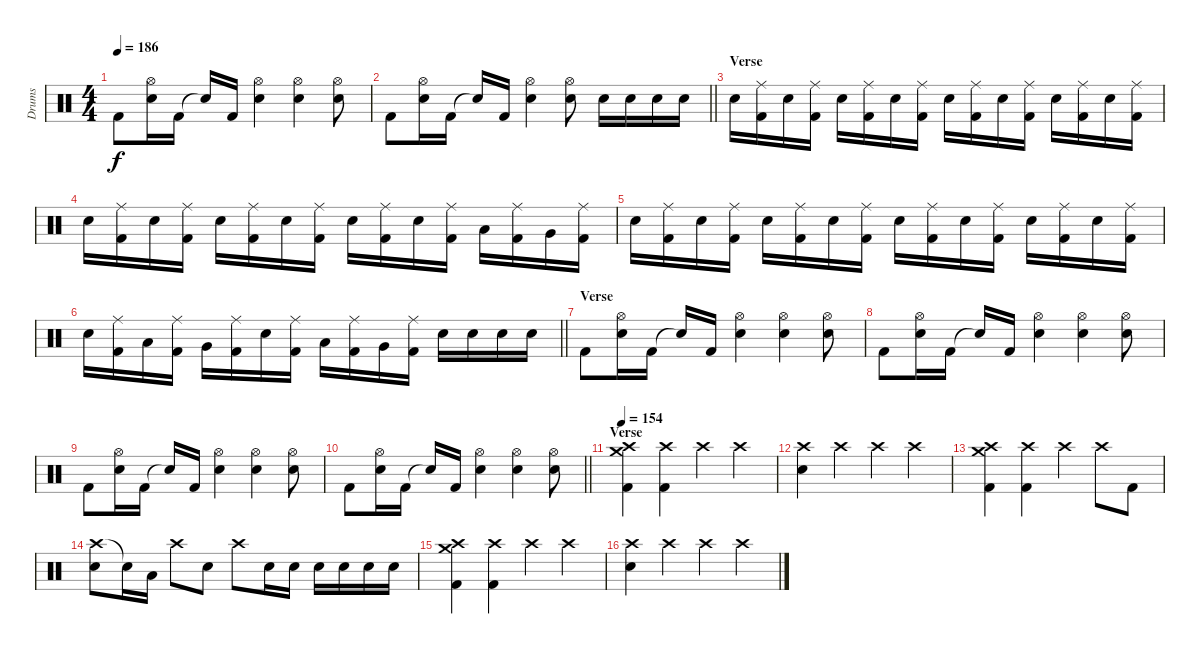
\track ("Drums" "Drums") {instrument percussion}
\staff {score}
\articulation defaults
\ts (4 4)
\tempo 186
\clef neutral
\ks c "Kick (hit) 2".8{dy f}
("Hi-Hat (open)" "Electric Snare (hit)").16 "Kick (hit) 2".16 "Snare (hit)"{t}.16 "Kick (hit) 2".16 ("Hi-Hat (open)" "Electric Snare (hit)").4 ("Hi-Hat (open)" "Electric Snare (hit)").4 ("Hi-Hat (open)" "Electric Snare (hit)").8 |
\barLineRight lightlight "Kick (hit) 2".8
("Hi-Hat (open)" "Electric Snare (hit)").16 "Kick (hit) 2".16 "Snare (hit)"{t}.16 "Kick (hit) 2".16 ("Hi-Hat (open)" "Electric Snare (hit)").4 ("Hi-Hat (open)" "Electric Snare (hit)").8 "Electric Snare (hit)".16 "Electric Snare (hit)".16 "Electric Snare (hit)".16 "Electric Snare (hit)".16 |
\section ("" "Verse")
"Electric Snare (hit)".16 ("Ride (middle)" "Kick (hit) 2").16 "Electric Snare (hit)".16 ("Ride (middle)" "Kick (hit) 2").16 "Electric Snare (hit)".16 ("Ride (middle)" "Kick (hit) 2").16 "Electric Snare (hit)".16 ("Ride (middle)" "Kick (hit) 2").16 "Electric Snare (hit)".16 ("Ride (middle)" "Kick (hit) 2").16 "Electric Snare (hit)".16 ("Ride (middle)" "Kick (hit) 2").16 "Electric Snare (hit)".16 ("Ride (middle)" "Kick (hit) 2").16 "Electric Snare (hit)".16 ("Ride (middle)" "Kick (hit) 2").16 |
"Electric Snare (hit)".16 ("Ride (middle)" "Kick (hit) 2").16 "Electric Snare (hit)".16 ("Ride (middle)" "Kick (hit) 2").16 "Electric Snare (hit)".16 ("Ride (middle)" "Kick (hit) 2").16 "Electric Snare (hit)".16 ("Ride (middle)" "Kick (hit) 2").16 "Electric Snare (hit)".16 ("Ride (middle)" "Kick (hit) 2").16 "Electric Snare (hit)".16 ("Ride (middle)" "Kick (hit) 2").16 "Low Tom (hit)".16 ("Ride (middle)" "Kick (hit) 2").16 "Very Low Tom (hit)".16 ("Ride (middle)" "Kick (hit) 2").16 |
"Electric Snare (hit)".16 ("Ride (middle)" "Kick (hit) 2").16 "Electric Snare (hit)".16 ("Ride (middle)" "Kick (hit) 2").16 "Electric Snare (hit)".16 ("Ride (middle)" "Kick (hit) 2").16 "Electric Snare (hit)".16 ("Ride (middle)" "Kick (hit) 2").16 "Electric Snare (hit)".16 ("Ride (middle)" "Kick (hit) 2").16 "Electric Snare (hit)".16 ("Ride (middle)" "Kick (hit) 2").16 "Electric Snare (hit)".16 ("Ride (middle)" "Kick (hit) 2").16 "Electric Snare (hit)".16 ("Ride (middle)" "Kick (hit) 2").16 |
\barLineRight lightlight "Electric Snare (hit)".16
("Ride (middle)" "Kick (hit) 2").16 "Low Tom (hit)".16 ("Ride (middle)" "Kick (hit) 2").16 "Very Low Tom (hit)".16 ("Ride (middle)" "Kick (hit) 2").16 "Electric Snare (hit)".16 ("Ride (middle)" "Kick (hit) 2").16 "Low Tom (hit)".16 ("Ride (middle)" "Kick (hit) 2").16 "Very Low Tom (hit)".16 ("Ride (middle)" "Kick (hit) 2").16 "Electric Snare (hit)".16 "Electric Snare (hit)".16 "Electric Snare (hit)".16 "Electric Snare (hit)".16 |
\section ("" "Verse")
"Kick (hit) 2".8 ("Hi-Hat (open)" "Electric Snare (hit)").16 "Kick (hit) 2".16 "Snare (hit)"{t}.16 "Kick (hit) 2".16 ("Hi-Hat (open)" "Electric Snare (hit)").4 ("Hi-Hat (open)" "Electric Snare (hit)").4 ("Hi-Hat (open)" "Electric Snare (hit)").8 |
"Kick (hit) 2".8 ("Hi-Hat (open)" "Electric Snare (hit)").16 "Kick (hit) 2".16 "Snare (hit)"{t}.16 "Kick (hit) 2".16 ("Hi-Hat (open)" "Electric Snare (hit)").4 ("Hi-Hat (open)" "Electric Snare (hit)").4 ("Hi-Hat (open)" "Electric Snare (hit)").8 |
"Kick (hit) 2".8 ("Hi-Hat (open)" "Electric Snare (hit)").16 "Kick (hit) 2".16 "Snare (hit)"{t}.16 "Kick (hit) 2".16 ("Hi-Hat (open)" "Electric Snare (hit)").4 ("Hi-Hat (open)" "Electric Snare (hit)").4 ("Hi-Hat (open)" "Electric Snare (hit)").8 |
\barLineRight lightlight "Kick (hit) 2".8
("Hi-Hat (open)" "Electric Snare (hit)").16 "Kick (hit) 2".16 "Snare (hit)"{t}.16 "Kick (hit) 2".16 ("Hi-Hat (open)" "Electric Snare (hit)").4 ("Hi-Hat (open)" "Electric Snare (hit)").4 ("Hi-Hat (open)" "Electric Snare (hit)").8 |
\section ("" "Verse")
\tempo 154
("Crash medium (hit)" "Crash high (hit)" "Kick (hit) 2").4 ("Crash high (hit)" "Kick (hit) 2").4 "Crash high (hit)".4 "Crash high (hit)".4 |
("Crash high (hit)" "Electric Snare (hit)").4 "Crash high (hit)".4 "Crash high (hit)".4 "Crash high (hit)".4 |
("Crash medium (hit)" "Crash high (hit)" "Kick (hit) 2").4 ("Crash high (hit)" "Kick (hit) 2").4 "Crash high (hit)".4 "Crash high (hit)".8 "Kick (hit) 2".8 |
("Crash high (hit)" "Electric Snare (hit)").8 "Snare (hit)"{t}.16 "Low Tom (hit)".16 "Crash high (hit)".8 "Electric Snare (hit)".8 "Crash high (hit)".8 "Electric Snare (hit)".16 "Electric Snare (hit)".16 "Electric Snare (hit)".16 "Electric Snare (hit)".16 "Electric Snare (hit)".16 "Electric Snare (hit)".16 |
("Crash medium (hit)" "Crash high (hit)" "Kick (hit) 2").4 ("Crash high (hit)" "Kick (hit) 2").4 "Crash high (hit)".4 "Crash high (hit)".4 |
("Crash high (hit)" "Electric Snare (hit)").4 "Crash high (hit)".4 "Crash high (hit)".4 "Crash high (hit)".4
